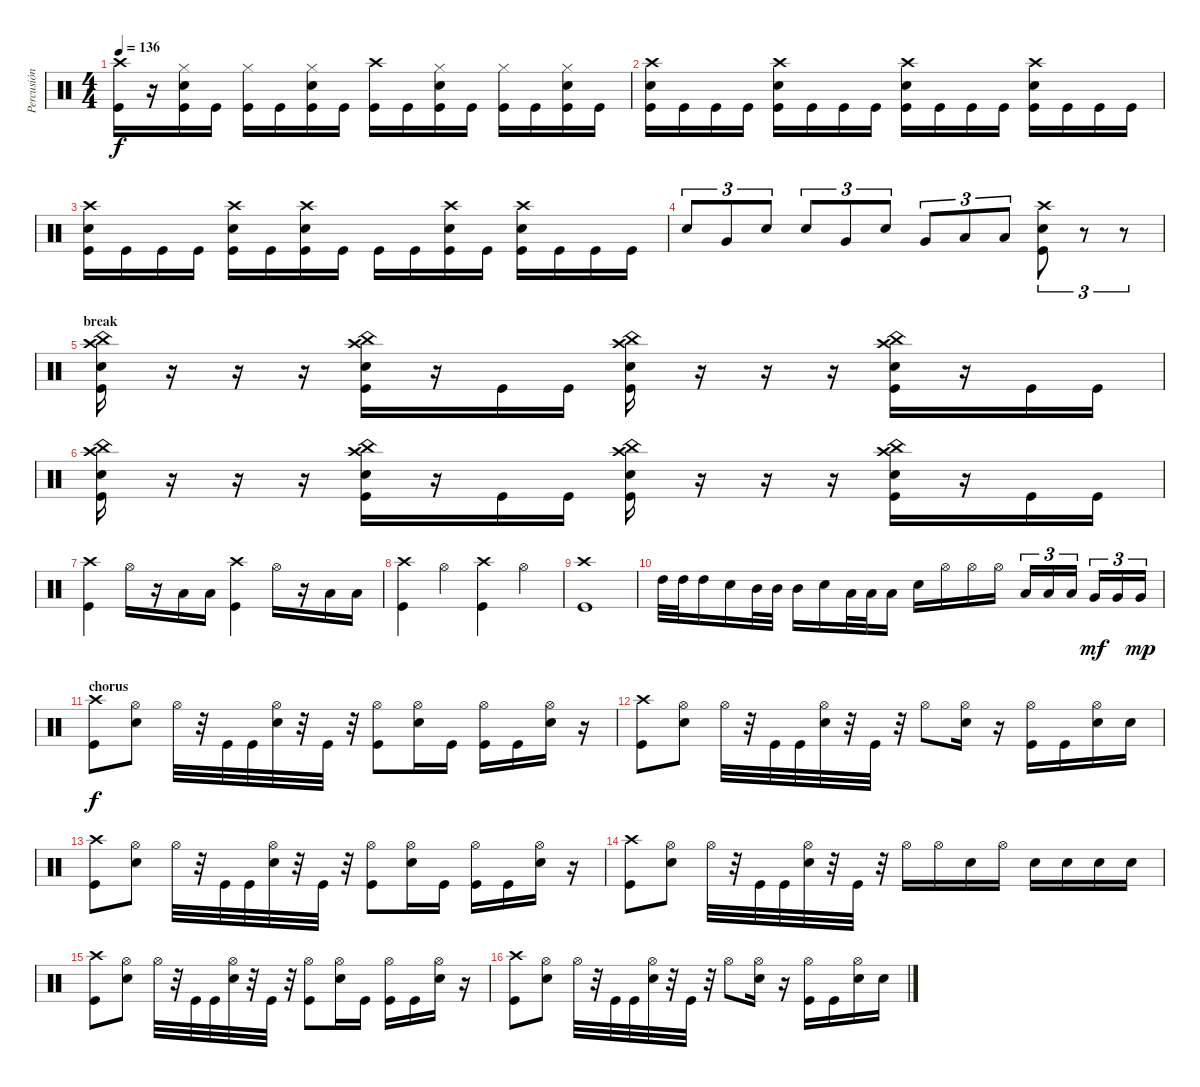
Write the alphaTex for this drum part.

\track ("Percusión" "Percusión") {instrument percussion}
\staff {score}
\articulation defaults
\ts (4 4)
\tempo 136
\clef neutral
\ks c
("Crash high (hit)" "Kick (hit)").16{dy f} r.16 ("Hi-Hat (closed)" "Snare (hit) 2" "Kick (hit)").16 "Kick (hit)".16 ("Hi-Hat (closed)" "Kick (hit)").16 "Kick (hit)".16 ("Hi-Hat (closed)" "Snare (hit) 2" "Kick (hit)").16 "Kick (hit)".16 ("Crash high (hit)" "Kick (hit)").16 "Kick (hit)".16 ("Hi-Hat (closed)" "Snare (hit) 2" "Kick (hit)").16 "Kick (hit)".16 ("Hi-Hat (closed)" "Kick (hit)").16 "Kick (hit)".16 ("Hi-Hat (closed)" "Snare (hit) 2" "Kick (hit)").16 "Kick (hit)".16 |
("Crash high (hit)" "Snare (hit) 2" "Kick (hit)").16 "Kick (hit)".16 "Kick (hit)".16 "Kick (hit)".16 ("Crash high (hit)" "Snare (hit) 2" "Kick (hit)").16 "Kick (hit)".16 "Kick (hit)".16 "Kick (hit)".16 ("Crash high (hit)" "Snare (hit) 2" "Kick (hit)").16 "Kick (hit)".16 "Kick (hit)".16 "Kick (hit)".16 ("Crash high (hit)" "Snare (hit) 2" "Kick (hit)").16 "Kick (hit)".16 "Kick (hit)".16 "Kick (hit)".16 |
("Crash high (hit)" "Snare (hit) 2" "Kick (hit)").16 "Kick (hit)".16 "Kick (hit)".16 "Kick (hit)".16 ("Crash high (hit)" "Snare (hit) 2" "Kick (hit)").16 "Kick (hit)".16 ("Crash high (hit)" "Snare (hit) 2" "Kick (hit)").16 "Kick (hit)".16 "Kick (hit)".16 "Kick (hit)".16 ("Crash high (hit)" "Snare (hit) 2" "Kick (hit)").16 "Kick (hit)".16 ("Crash high (hit)" "Snare (hit) 2" "Kick (hit)").16 "Kick (hit)".16 "Kick (hit)".16 "Kick (hit)".16 |
"Snare (hit) 2".8{tu (3 2)} "Very Low Tom (hit)".8{tu (3 2)} "Snare (hit) 2".8{tu (3 2)} "Snare (hit) 2".8{tu (3 2)} "Very Low Tom (hit)".8{tu (3 2)} "Snare (hit) 2".8{tu (3 2)} "Very Low Tom (hit)".8{tu (3 2)} "Low Tom (hit)".8{tu (3 2)} "Low Tom (hit)".8{tu (3 2)} ("Crash high (hit)" "Snare (hit) 2" "Kick (hit)").8{tu (3 2)} r.8{tu (3 2)} r.8{tu (3 2)} |
\section ("" "break")
("China (hit)" "Crash high (hit)" "Snare (hit) 2" "Kick (hit)").16 r.16 r.16 r.16 ("China (hit)" "Crash high (hit)" "Snare (hit) 2" "Kick (hit)").16 r.16 "Kick (hit)".16 "Kick (hit)".16 ("China (hit)" "Crash high (hit)" "Snare (hit) 2" "Kick (hit)").16 r.16 r.16 r.16 ("China (hit)" "Crash high (hit)" "Snare (hit) 2" "Kick (hit)").16 r.16 "Kick (hit)".16 "Kick (hit)".16 |
("China (hit)" "Crash high (hit)" "Snare (hit) 2" "Kick (hit)").16 r.16 r.16 r.16 ("China (hit)" "Crash high (hit)" "Snare (hit) 2" "Kick (hit)").16 r.16 "Kick (hit)".16 "Kick (hit)".16 ("China (hit)" "Crash high (hit)" "Snare (hit) 2" "Kick (hit)").16 r.16 r.16 r.16 ("China (hit)" "Crash high (hit)" "Snare (hit) 2" "Kick (hit)").16 r.16 "Kick (hit)".16 "Kick (hit)".16 |
("Crash high (hit)" "Kick (hit)").4 "Hi-Hat (open)".16 r.16 "Low Tom (hit)".16 "Low Tom (hit)".16 ("Crash high (hit)" "Kick (hit)").4 "Hi-Hat (open)".16 r.16 "Low Tom (hit)".16 "Low Tom (hit)".16 |
("Crash high (hit)" "Kick (hit)").4 "Hi-Hat (open)".4 ("Crash high (hit)" "Kick (hit)").4 "Hi-Hat (open)".4 |
("Crash high (hit)" "Kick (hit)").1 |
"High Tom (hit)".32 "High Tom (hit)".32 "High Tom (hit)".16 "Snare (hit) 2".16 "Mid Tom (hit)".32 "Mid Tom (hit)".32 "Mid Tom (hit)".16 "Snare (hit) 2".16 "Low Tom (hit)".32 "Low Tom (hit)".32 "Low Tom (hit)".16 "Snare (hit) 2".16 "Hi-Hat (open)".16 "Hi-Hat (open)".16 "Hi-Hat (open)".16 "Low Tom (hit)".16{tu (3 2)} "Low Tom (hit)".16{tu (3 2)} "Low Tom (hit)".16{tu (3 2)} "Very Low Tom (hit)".16{tu (3 2) dy mf} "Very Low Tom (hit)".16{tu (3 2)} "Very Low Tom (hit)".16{tu (3 2) dy mp} |
\section ("" "chorus")
("Crash high (hit)" "Kick (hit)").8{dy f} ("Hi-Hat (open)" "Snare (hit) 2").8 "Hi-Hat (open)".32 r.32 "Kick (hit)".32 "Kick (hit)".32 ("Hi-Hat (open)" "Snare (hit) 2").32 r.32 "Kick (hit)".32 r.32 ("Hi-Hat (open)" "Kick (hit)").8 ("Hi-Hat (open)" "Snare (hit) 2").16 "Kick (hit)".16 ("Hi-Hat (open)" "Kick (hit)").16 "Kick (hit)".16 ("Hi-Hat (open)" "Snare (hit) 2").16 r.16 |
("Crash high (hit)" "Kick (hit)").8 ("Hi-Hat (open)" "Snare (hit) 2").8 "Hi-Hat (open)".32 r.32 "Kick (hit)".32 "Kick (hit)".32 ("Hi-Hat (open)" "Snare (hit) 2").32 r.32 "Kick (hit)".32 r.32 "Hi-Hat (open)".8 ("Hi-Hat (open)" "Snare (hit) 2").16 r.16 ("Hi-Hat (open)" "Kick (hit)").16 "Kick (hit)".16 ("Hi-Hat (open)" "Snare (hit) 2").16 "Snare (hit) 2".16 |
("Crash high (hit)" "Kick (hit)").8 ("Hi-Hat (open)" "Snare (hit) 2").8 "Hi-Hat (open)".32 r.32 "Kick (hit)".32 "Kick (hit)".32 ("Hi-Hat (open)" "Snare (hit) 2").32 r.32 "Kick (hit)".32 r.32 ("Hi-Hat (open)" "Kick (hit)").8 ("Hi-Hat (open)" "Snare (hit) 2").16 "Kick (hit)".16 ("Hi-Hat (open)" "Kick (hit)").16 "Kick (hit)".16 ("Hi-Hat (open)" "Snare (hit) 2").16 r.16 |
("Crash high (hit)" "Kick (hit)").8 ("Hi-Hat (open)" "Snare (hit) 2").8 "Hi-Hat (open)".32 r.32 "Kick (hit)".32 "Kick (hit)".32 ("Hi-Hat (open)" "Snare (hit) 2").32 r.32 "Kick (hit)".32 r.32 "Hi-Hat (open)".16 "Hi-Hat (open)".16 "Snare (hit) 2".16 "Hi-Hat (open)".16 "Snare (hit) 2".16 "Snare (hit) 2".16 "Snare (hit) 2".16 "Snare (hit) 2".16 |
("Crash high (hit)" "Kick (hit)").8 ("Hi-Hat (open)" "Snare (hit) 2").8 "Hi-Hat (open)".32 r.32 "Kick (hit)".32 "Kick (hit)".32 ("Hi-Hat (open)" "Snare (hit) 2").32 r.32 "Kick (hit)".32 r.32 ("Hi-Hat (open)" "Kick (hit)").8 ("Hi-Hat (open)" "Snare (hit) 2").16 "Kick (hit)".16 ("Hi-Hat (open)" "Kick (hit)").16 "Kick (hit)".16 ("Hi-Hat (open)" "Snare (hit) 2").16 r.16 |
("Crash high (hit)" "Kick (hit)").8 ("Hi-Hat (open)" "Snare (hit) 2").8 "Hi-Hat (open)".32 r.32 "Kick (hit)".32 "Kick (hit)".32 ("Hi-Hat (open)" "Snare (hit) 2").32 r.32 "Kick (hit)".32 r.32 "Hi-Hat (open)".8 ("Hi-Hat (open)" "Snare (hit) 2").16 r.16 ("Hi-Hat (open)" "Kick (hit)").16 "Kick (hit)".16 ("Hi-Hat (open)" "Snare (hit) 2").16 "Snare (hit) 2".16
